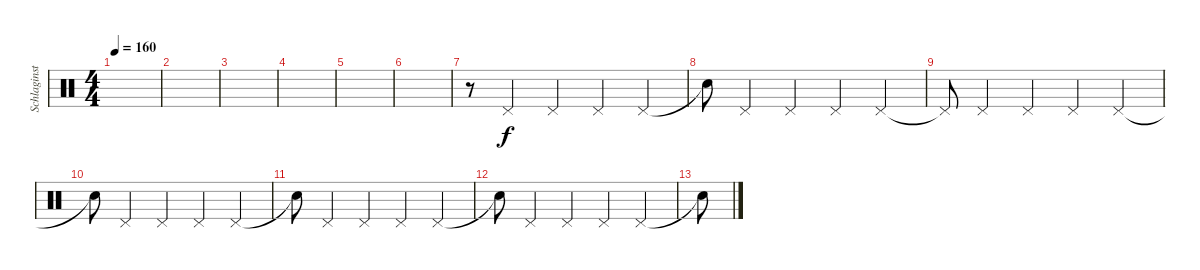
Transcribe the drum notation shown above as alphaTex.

\track ("Schlaginstrumente - Auswahl" "Schlaginst") {instrument percussion}
\staff {score}
\articulation defaults
\ts (4 4)
\tempo 160
\clef neutral
\ks c
|
|
|
|
|
|
r.8 "Pedal Hi-Hat (hit)".4 "Pedal Hi-Hat (hit)".4 "Pedal Hi-Hat (hit)".4 "Pedal Hi-Hat (hit)".4 |
"Snare (hit)"{t}.8 "Pedal Hi-Hat (hit)".4 "Pedal Hi-Hat (hit)".4 "Pedal Hi-Hat (hit)".4 "Pedal Hi-Hat (hit)".4 |
"Pedal Hi-Hat (hit)"{t}.8 "Pedal Hi-Hat (hit)".4 "Pedal Hi-Hat (hit)".4 "Pedal Hi-Hat (hit)".4 "Pedal Hi-Hat (hit)".4 |
"Snare (hit)"{t}.8 "Pedal Hi-Hat (hit)".4 "Pedal Hi-Hat (hit)".4 "Pedal Hi-Hat (hit)".4 "Pedal Hi-Hat (hit)".4 |
"Snare (hit)"{t}.8 "Pedal Hi-Hat (hit)".4 "Pedal Hi-Hat (hit)".4 "Pedal Hi-Hat (hit)".4 "Pedal Hi-Hat (hit)".4 |
"Snare (hit)"{t}.8 "Pedal Hi-Hat (hit)".4 "Pedal Hi-Hat (hit)".4 "Pedal Hi-Hat (hit)".4 "Pedal Hi-Hat (hit)".4 |
"Snare (hit)"{t}.8
